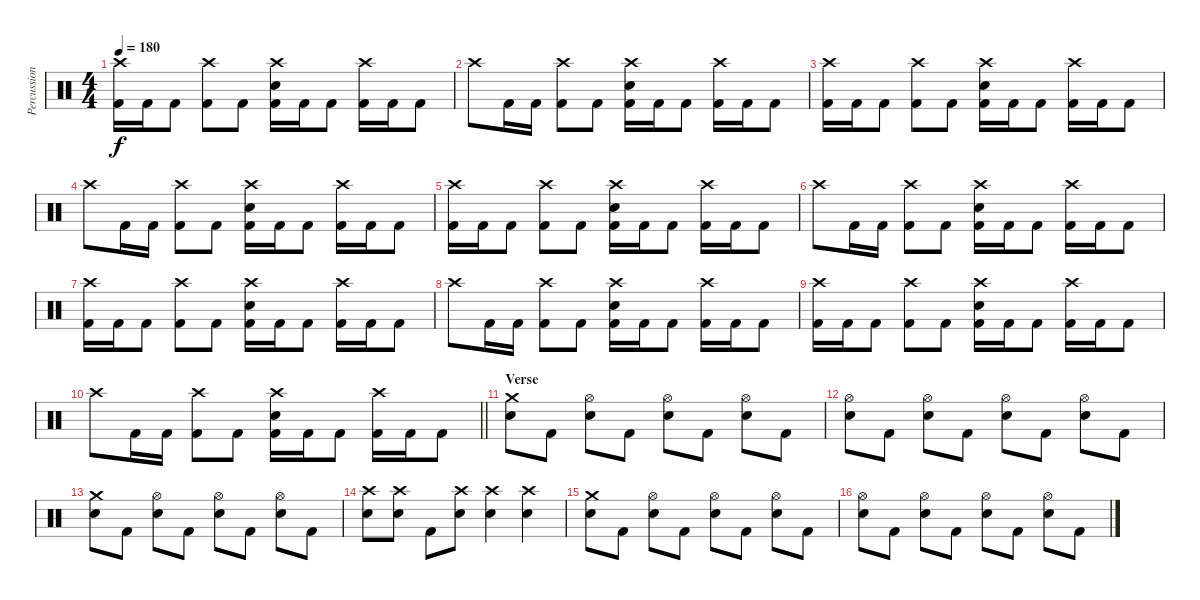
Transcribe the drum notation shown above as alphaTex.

\track ("Percussion" "Percussion") {instrument percussion}
\staff {score}
\articulation defaults
\ts (4 4)
\tempo 180
\clef neutral
\ks c
("Crash high (hit)" "Kick (hit) 2").16{dy f} "Kick (hit) 2".16 "Kick (hit) 2".8 ("Crash high (hit)" "Kick (hit) 2").8 "Kick (hit) 2".8 ("Crash high (hit)" "Electric Snare (hit)" "Kick (hit) 2").16 "Kick (hit) 2".16 "Kick (hit) 2".8 ("Crash high (hit)" "Kick (hit) 2").16 "Kick (hit) 2".16 "Kick (hit) 2".8 |
"Crash high (hit)".8 "Kick (hit) 2".16 "Kick (hit) 2".16 ("Crash high (hit)" "Kick (hit) 2").8 "Kick (hit) 2".8 ("Crash high (hit)" "Electric Snare (hit)" "Kick (hit) 2").16 "Kick (hit) 2".16 "Kick (hit) 2".8 ("Crash high (hit)" "Kick (hit) 2").16 "Kick (hit) 2".16 "Kick (hit) 2".8 |
("Crash high (hit)" "Kick (hit) 2").16 "Kick (hit) 2".16 "Kick (hit) 2".8 ("Crash high (hit)" "Kick (hit) 2").8 "Kick (hit) 2".8 ("Crash high (hit)" "Electric Snare (hit)" "Kick (hit) 2").16 "Kick (hit) 2".16 "Kick (hit) 2".8 ("Crash high (hit)" "Kick (hit) 2").16 "Kick (hit) 2".16 "Kick (hit) 2".8 |
"Crash high (hit)".8 "Kick (hit) 2".16 "Kick (hit) 2".16 ("Crash high (hit)" "Kick (hit) 2").8 "Kick (hit) 2".8 ("Crash high (hit)" "Electric Snare (hit)" "Kick (hit) 2").16 "Kick (hit) 2".16 "Kick (hit) 2".8 ("Crash high (hit)" "Kick (hit) 2").16 "Kick (hit) 2".16 "Kick (hit) 2".8 |
("Crash high (hit)" "Kick (hit) 2").16 "Kick (hit) 2".16 "Kick (hit) 2".8 ("Crash high (hit)" "Kick (hit) 2").8 "Kick (hit) 2".8 ("Crash high (hit)" "Electric Snare (hit)" "Kick (hit) 2").16 "Kick (hit) 2".16 "Kick (hit) 2".8 ("Crash high (hit)" "Kick (hit) 2").16 "Kick (hit) 2".16 "Kick (hit) 2".8 |
"Crash high (hit)".8 "Kick (hit) 2".16 "Kick (hit) 2".16 ("Crash high (hit)" "Kick (hit) 2").8 "Kick (hit) 2".8 ("Crash high (hit)" "Electric Snare (hit)" "Kick (hit) 2").16 "Kick (hit) 2".16 "Kick (hit) 2".8 ("Crash high (hit)" "Kick (hit) 2").16 "Kick (hit) 2".16 "Kick (hit) 2".8 |
("Crash high (hit)" "Kick (hit) 2").16 "Kick (hit) 2".16 "Kick (hit) 2".8 ("Crash high (hit)" "Kick (hit) 2").8 "Kick (hit) 2".8 ("Crash high (hit)" "Electric Snare (hit)" "Kick (hit) 2").16 "Kick (hit) 2".16 "Kick (hit) 2".8 ("Crash high (hit)" "Kick (hit) 2").16 "Kick (hit) 2".16 "Kick (hit) 2".8 |
"Crash high (hit)".8 "Kick (hit) 2".16 "Kick (hit) 2".16 ("Crash high (hit)" "Kick (hit) 2").8 "Kick (hit) 2".8 ("Crash high (hit)" "Electric Snare (hit)" "Kick (hit) 2").16 "Kick (hit) 2".16 "Kick (hit) 2".8 ("Crash high (hit)" "Kick (hit) 2").16 "Kick (hit) 2".16 "Kick (hit) 2".8 |
("Crash high (hit)" "Kick (hit) 2").16 "Kick (hit) 2".16 "Kick (hit) 2".8 ("Crash high (hit)" "Kick (hit) 2").8 "Kick (hit) 2".8 ("Crash high (hit)" "Electric Snare (hit)" "Kick (hit) 2").16 "Kick (hit) 2".16 "Kick (hit) 2".8 ("Crash high (hit)" "Kick (hit) 2").16 "Kick (hit) 2".16 "Kick (hit) 2".8 |
\barLineRight lightlight "Crash high (hit)".8 "Kick (hit) 2".16 "Kick (hit) 2".16
("Crash high (hit)" "Kick (hit) 2").8 "Kick (hit) 2".8 ("Crash high (hit)" "Electric Snare (hit)" "Kick (hit) 2").16 "Kick (hit) 2".16 "Kick (hit) 2".8 ("Crash high (hit)" "Kick (hit) 2").16 "Kick (hit) 2".16 "Kick (hit) 2".8 |
\section ("" "Verse")
("Crash medium (hit)" "Electric Snare (hit)").8 "Kick (hit) 2".8 ("Hi-Hat (open)" "Electric Snare (hit)").8 "Kick (hit) 2".8 ("Hi-Hat (open)" "Electric Snare (hit)").8 "Kick (hit) 2".8 ("Hi-Hat (open)" "Electric Snare (hit)").8 "Kick (hit) 2".8 |
("Hi-Hat (open)" "Electric Snare (hit)").8 "Kick (hit) 2".8 ("Hi-Hat (open)" "Electric Snare (hit)").8 "Kick (hit) 2".8 ("Hi-Hat (open)" "Electric Snare (hit)").8 "Kick (hit) 2".8 ("Hi-Hat (open)" "Electric Snare (hit)").8 "Kick (hit) 2".8 |
("Crash medium (hit)" "Electric Snare (hit)").8 "Kick (hit) 2".8 ("Hi-Hat (open)" "Electric Snare (hit)").8 "Kick (hit) 2".8 ("Hi-Hat (open)" "Electric Snare (hit)").8 "Kick (hit) 2".8 ("Hi-Hat (open)" "Electric Snare (hit)").8 "Kick (hit) 2".8 |
("Crash high (hit)" "Electric Snare (hit)").8 ("Crash high (hit)" "Electric Snare (hit)").8 "Kick (hit) 2".8 ("Crash high (hit)" "Electric Snare (hit)").8 ("Crash high (hit)" "Electric Snare (hit)").4 ("Crash high (hit)" "Electric Snare (hit)").4 |
("Crash medium (hit)" "Electric Snare (hit)").8 "Kick (hit) 2".8 ("Hi-Hat (open)" "Electric Snare (hit)").8 "Kick (hit) 2".8 ("Hi-Hat (open)" "Electric Snare (hit)").8 "Kick (hit) 2".8 ("Hi-Hat (open)" "Electric Snare (hit)").8 "Kick (hit) 2".8 |
("Hi-Hat (open)" "Electric Snare (hit)").8 "Kick (hit) 2".8 ("Hi-Hat (open)" "Electric Snare (hit)").8 "Kick (hit) 2".8 ("Hi-Hat (open)" "Electric Snare (hit)").8 "Kick (hit) 2".8 ("Hi-Hat (open)" "Electric Snare (hit)").8 "Kick (hit) 2".8
